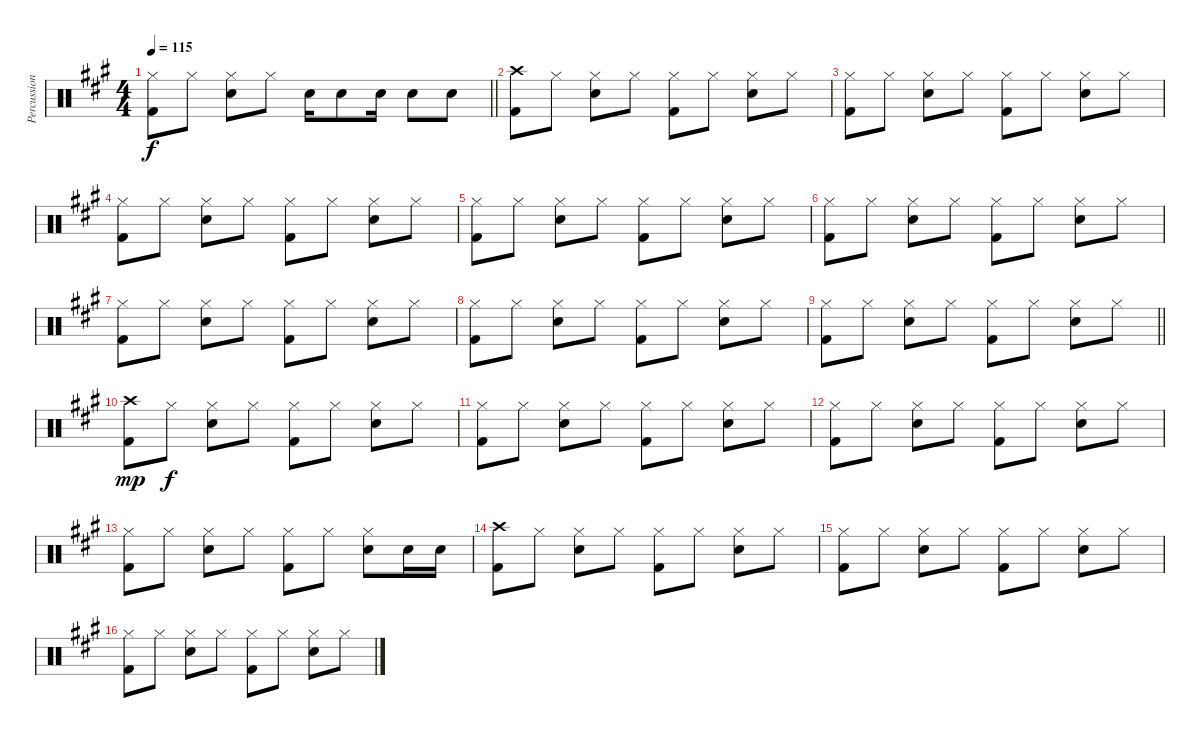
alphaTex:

\track ("Percussion" "Percussion") {instrument percussion}
\staff {score}
\articulation defaults
\ts (4 4)
\tempo 115
\clef neutral
\barLineRight lightlight
\ks a
("Hi-Hat (closed)" "Kick (hit) 2").8{dy f} "Hi-Hat (closed)".8 ("Hi-Hat (closed)" "Snare (hit) 2").8 "Hi-Hat (closed)".8 "Snare (hit) 2".16 "Snare (hit) 2".8 "Snare (hit) 2".16 "Snare (hit) 2".8 "Snare (hit) 2".8 |
("Crash high (hit)" "Kick (hit) 2").8 "Hi-Hat (closed)".8 ("Hi-Hat (closed)" "Snare (hit) 2").8 "Hi-Hat (closed)".8 ("Hi-Hat (closed)" "Kick (hit) 2").8 "Hi-Hat (closed)".8 ("Hi-Hat (closed)" "Snare (hit) 2").8 "Hi-Hat (closed)".8 |
("Hi-Hat (closed)" "Kick (hit) 2").8 "Hi-Hat (closed)".8 ("Hi-Hat (closed)" "Snare (hit) 2").8 "Hi-Hat (closed)".8 ("Hi-Hat (closed)" "Kick (hit) 2").8 "Hi-Hat (closed)".8 ("Hi-Hat (closed)" "Snare (hit) 2").8 "Hi-Hat (closed)".8 |
("Hi-Hat (closed)" "Kick (hit) 2").8 "Hi-Hat (closed)".8 ("Hi-Hat (closed)" "Snare (hit) 2").8 "Hi-Hat (closed)".8 ("Hi-Hat (closed)" "Kick (hit) 2").8 "Hi-Hat (closed)".8 ("Hi-Hat (closed)" "Snare (hit) 2").8 "Hi-Hat (closed)".8 |
("Hi-Hat (closed)" "Kick (hit) 2").8 "Hi-Hat (closed)".8 ("Hi-Hat (closed)" "Snare (hit) 2").8 "Hi-Hat (closed)".8 ("Hi-Hat (closed)" "Kick (hit) 2").8 "Hi-Hat (closed)".8 ("Hi-Hat (closed)" "Snare (hit) 2").8 "Hi-Hat (closed)".8 |
("Hi-Hat (closed)" "Kick (hit) 2").8 "Hi-Hat (closed)".8 ("Hi-Hat (closed)" "Snare (hit) 2").8 "Hi-Hat (closed)".8 ("Hi-Hat (closed)" "Kick (hit) 2").8 "Hi-Hat (closed)".8 ("Hi-Hat (closed)" "Snare (hit) 2").8 "Hi-Hat (closed)".8 |
("Hi-Hat (closed)" "Kick (hit) 2").8 "Hi-Hat (closed)".8 ("Hi-Hat (closed)" "Snare (hit) 2").8 "Hi-Hat (closed)".8 ("Hi-Hat (closed)" "Kick (hit) 2").8 "Hi-Hat (closed)".8 ("Hi-Hat (closed)" "Snare (hit) 2").8 "Hi-Hat (closed)".8 |
("Hi-Hat (closed)" "Kick (hit) 2").8 "Hi-Hat (closed)".8 ("Hi-Hat (closed)" "Snare (hit) 2").8 "Hi-Hat (closed)".8 ("Hi-Hat (closed)" "Kick (hit) 2").8 "Hi-Hat (closed)".8 ("Hi-Hat (closed)" "Snare (hit) 2").8 "Hi-Hat (closed)".8 |
\barLineRight lightlight
("Hi-Hat (closed)" "Kick (hit) 2").8 "Hi-Hat (closed)".8 ("Hi-Hat (closed)" "Snare (hit) 2").8 "Hi-Hat (closed)".8 ("Hi-Hat (closed)" "Kick (hit) 2").8 "Hi-Hat (closed)".8 ("Hi-Hat (closed)" "Snare (hit) 2").8 "Hi-Hat (closed)".8 |
("Crash high (hit)" "Kick (hit) 2").8{dy mp} "Hi-Hat (closed)".8{dy f} ("Hi-Hat (closed)" "Snare (hit) 2").8 "Hi-Hat (closed)".8 ("Hi-Hat (closed)" "Kick (hit) 2").8 "Hi-Hat (closed)".8 ("Hi-Hat (closed)" "Snare (hit) 2").8 "Hi-Hat (closed)".8 |
("Hi-Hat (closed)" "Kick (hit) 2").8 "Hi-Hat (closed)".8 ("Hi-Hat (closed)" "Snare (hit) 2").8 "Hi-Hat (closed)".8 ("Hi-Hat (closed)" "Kick (hit) 2").8 "Hi-Hat (closed)".8 ("Hi-Hat (closed)" "Snare (hit) 2").8 "Hi-Hat (closed)".8 |
("Hi-Hat (closed)" "Kick (hit) 2").8 "Hi-Hat (closed)".8 ("Hi-Hat (closed)" "Snare (hit) 2").8 "Hi-Hat (closed)".8 ("Hi-Hat (closed)" "Kick (hit) 2").8 "Hi-Hat (closed)".8 ("Hi-Hat (closed)" "Snare (hit) 2").8 "Hi-Hat (closed)".8 |
("Hi-Hat (closed)" "Kick (hit) 2").8 "Hi-Hat (closed)".8 ("Hi-Hat (closed)" "Snare (hit) 2").8 "Hi-Hat (closed)".8 ("Hi-Hat (closed)" "Kick (hit) 2").8 "Hi-Hat (closed)".8 ("Hi-Hat (closed)" "Snare (hit) 2").8 "Snare (hit) 2".16 "Snare (hit) 2".16 |
("Crash high (hit)" "Kick (hit) 2").8 "Hi-Hat (closed)".8 ("Hi-Hat (closed)" "Snare (hit) 2").8 "Hi-Hat (closed)".8 ("Hi-Hat (closed)" "Kick (hit) 2").8 "Hi-Hat (closed)".8 ("Hi-Hat (closed)" "Snare (hit) 2").8 "Hi-Hat (closed)".8 |
("Hi-Hat (closed)" "Kick (hit) 2").8 "Hi-Hat (closed)".8 ("Hi-Hat (closed)" "Snare (hit) 2").8 "Hi-Hat (closed)".8 ("Hi-Hat (closed)" "Kick (hit) 2").8 "Hi-Hat (closed)".8 ("Hi-Hat (closed)" "Snare (hit) 2").8 "Hi-Hat (closed)".8 |
("Hi-Hat (closed)" "Kick (hit) 2").8 "Hi-Hat (closed)".8 ("Hi-Hat (closed)" "Snare (hit) 2").8 "Hi-Hat (closed)".8 ("Hi-Hat (closed)" "Kick (hit) 2").8 "Hi-Hat (closed)".8 ("Hi-Hat (closed)" "Snare (hit) 2").8 "Hi-Hat (closed)".8
